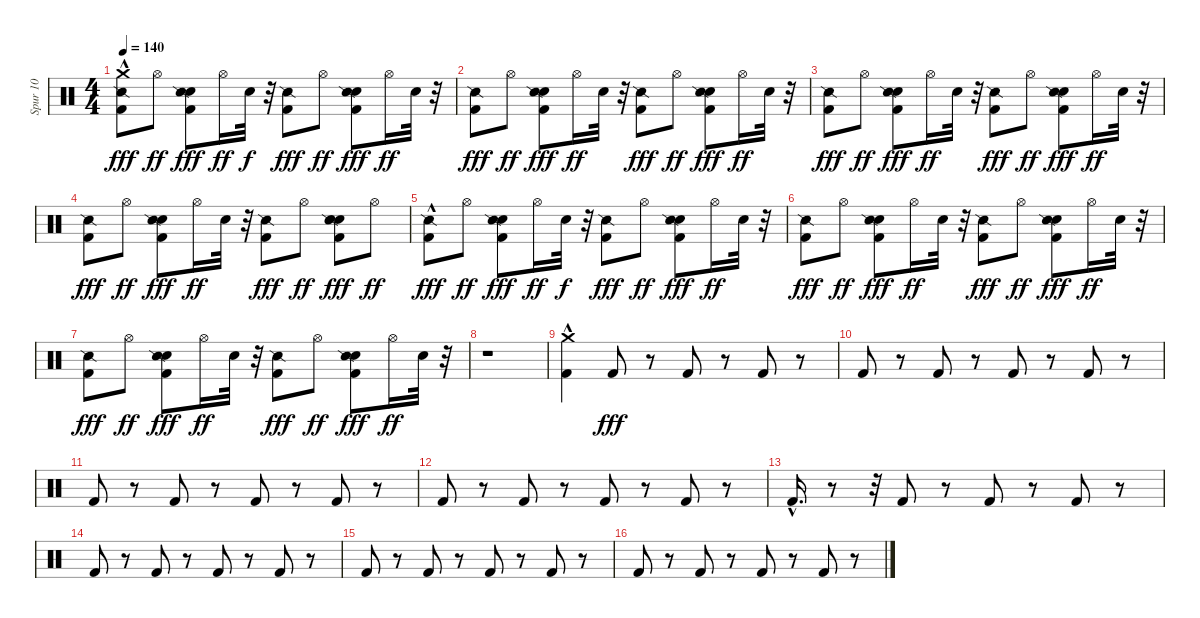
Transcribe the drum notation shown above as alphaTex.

\track ("Spur 10" "Spur 10") {instrument percussion}
\staff {score}
\articulation defaults
\ts (4 4)
\tempo 140
\clef neutral
\ks c
("Kick (hit) 2"{hac} "Snare (side stick) 2" "Crash medium (hit)"{hac}).8{dy fff} "Hi-Hat (open)".8{dy ff} ("Kick (hit) 2" "Hand Clap (hit)" "Snare (side stick) 2").8{dy fff} "Hi-Hat (open)".16{dy ff} "Snare (hit) 2".32{dy f} r.32 ("Kick (hit) 2" "Snare (side stick) 2").8{dy fff} "Hi-Hat (open)".8{dy ff} ("Kick (hit) 2" "Hand Clap (hit)" "Snare (side stick) 2").8{dy fff} "Hi-Hat (open)".16{dy ff} "Snare (hit) 2".32 r.32 |
("Kick (hit) 2" "Snare (side stick) 2").8{dy fff} "Hi-Hat (open)".8{dy ff} ("Kick (hit) 2" "Hand Clap (hit)" "Snare (side stick) 2").8{dy fff} "Hi-Hat (open)".16{dy ff} "Snare (hit) 2".32 r.32 ("Kick (hit) 2" "Snare (side stick) 2").8{dy fff} "Hi-Hat (open)".8{dy ff} ("Kick (hit) 2" "Hand Clap (hit)" "Snare (side stick) 2").8{dy fff} "Hi-Hat (open)".16{dy ff} "Snare (hit) 2".32 r.32 |
("Kick (hit) 2" "Snare (side stick) 2").8{dy fff} "Hi-Hat (open)".8{dy ff} ("Kick (hit) 2" "Hand Clap (hit)" "Snare (side stick) 2").8{dy fff} "Hi-Hat (open)".16{dy ff} "Snare (hit) 2".32 r.32 ("Kick (hit) 2" "Snare (side stick) 2").8{dy fff} "Hi-Hat (open)".8{dy ff} ("Kick (hit) 2" "Hand Clap (hit)" "Snare (side stick) 2").8{dy fff} "Hi-Hat (open)".16{dy ff} "Snare (hit) 2".32 r.32 |
("Kick (hit) 2" "Snare (side stick) 2").8{dy fff} "Hi-Hat (open)".8{dy ff} ("Kick (hit) 2" "Hand Clap (hit)" "Snare (side stick) 2").8{dy fff} "Hi-Hat (open)".16{dy ff} "Snare (hit) 2".32 r.32 ("Kick (hit) 2" "Snare (side stick) 2").8{dy fff} "Hi-Hat (open)".8{dy ff} ("Kick (hit) 2" "Hand Clap (hit)" "Snare (hit) 2" "Snare (side stick) 2").8{dy fff} "Hi-Hat (open)".8{dy ff} |
("Kick (hit) 2"{hac} "Snare (side stick) 2").8{dy fff} "Hi-Hat (open)".8{dy ff} ("Kick (hit) 2" "Hand Clap (hit)" "Snare (side stick) 2").8{dy fff} "Hi-Hat (open)".16{dy ff} "Snare (hit) 2".32{dy f} r.32 ("Kick (hit) 2" "Snare (side stick) 2").8{dy fff} "Hi-Hat (open)".8{dy ff} ("Kick (hit) 2" "Hand Clap (hit)" "Snare (side stick) 2").8{dy fff} "Hi-Hat (open)".16{dy ff} "Snare (hit) 2".32 r.32 |
("Kick (hit) 2" "Snare (side stick) 2").8{dy fff} "Hi-Hat (open)".8{dy ff} ("Kick (hit) 2" "Hand Clap (hit)" "Snare (side stick) 2").8{dy fff} "Hi-Hat (open)".16{dy ff} "Snare (hit) 2".32 r.32 ("Kick (hit) 2" "Snare (side stick) 2").8{dy fff} "Hi-Hat (open)".8{dy ff} ("Kick (hit) 2" "Hand Clap (hit)" "Snare (side stick) 2").8{dy fff} "Hi-Hat (open)".16{dy ff} "Snare (hit) 2".32 r.32 |
("Kick (hit) 2" "Snare (side stick) 2").8{dy fff} "Hi-Hat (open)".8{dy ff} ("Kick (hit) 2" "Hand Clap (hit)" "Snare (side stick) 2").8{dy fff} "Hi-Hat (open)".16{dy ff} "Snare (hit) 2".32 r.32 ("Kick (hit) 2" "Snare (side stick) 2").8{dy fff} "Hi-Hat (open)".8{dy ff} ("Kick (hit) 2" "Hand Clap (hit)" "Snare (side stick) 2").8{dy fff} "Hi-Hat (open)".16{dy ff} "Snare (hit) 2".32 r.32 |
r.1 |
("Kick (hit) 2"{hac} "Crash medium (hit)").4 "Kick (hit) 2".8{dy fff} r.8 "Kick (hit) 2".8 r.8 "Kick (hit) 2".8 r.8 |
"Kick (hit) 2".8 r.8 "Kick (hit) 2".8 r.8 "Kick (hit) 2".8 r.8 "Kick (hit) 2".8 r.8 |
"Kick (hit) 2".8 r.8 "Kick (hit) 2".8 r.8 "Kick (hit) 2".8 r.8 "Kick (hit) 2".8 r.8 |
"Kick (hit) 2".8 r.8 "Kick (hit) 2".8 r.8 "Kick (hit) 2".8 r.8 "Kick (hit) 2".8 r.8 |
"Kick (hit) 2"{hac}.16{d} r.8 r.32 "Kick (hit) 2".8 r.8 "Kick (hit) 2".8 r.8 "Kick (hit) 2".8 r.8 |
"Kick (hit) 2".8 r.8 "Kick (hit) 2".8 r.8 "Kick (hit) 2".8 r.8 "Kick (hit) 2".8 r.8 |
"Kick (hit) 2".8 r.8 "Kick (hit) 2".8 r.8 "Kick (hit) 2".8 r.8 "Kick (hit) 2".8 r.8 |
"Kick (hit) 2".8 r.8 "Kick (hit) 2".8 r.8 "Kick (hit) 2".8 r.8 "Kick (hit) 2".8 r.8
